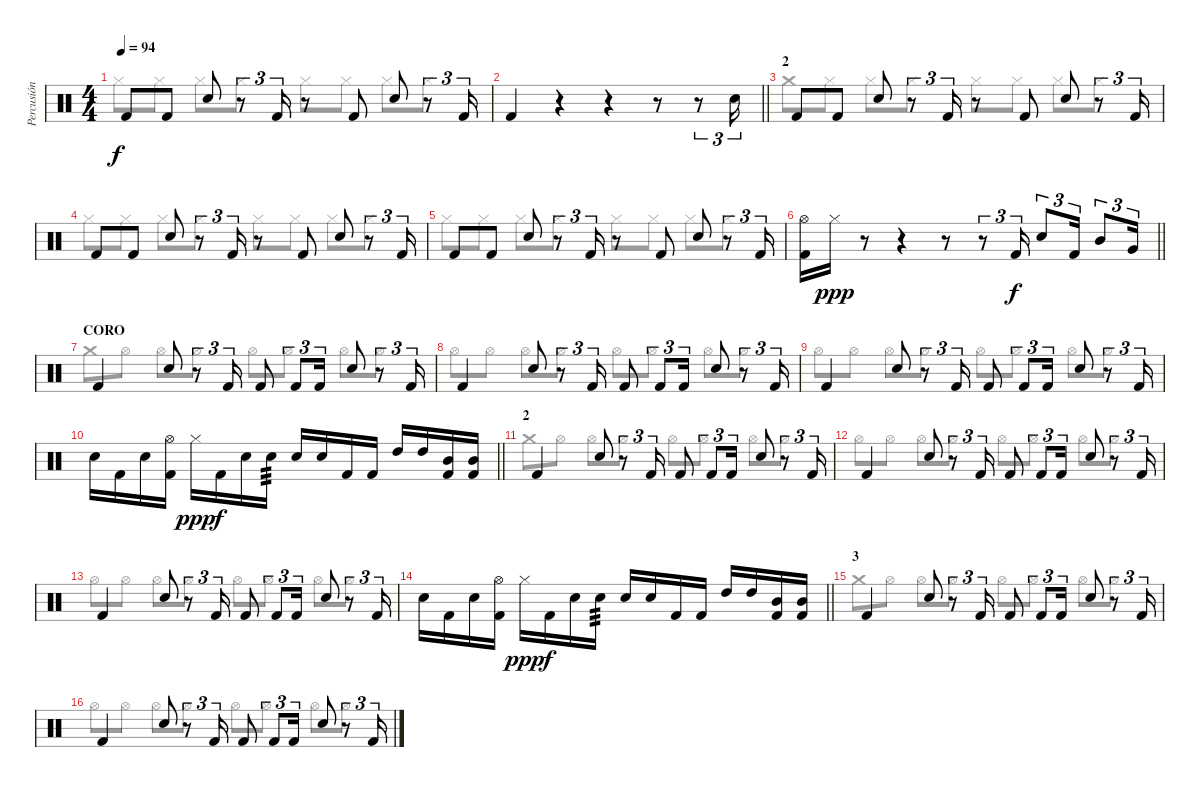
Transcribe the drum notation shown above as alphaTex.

\track ("Percusión" "Percusión") {instrument percussion}
\staff {score}
\articulation defaults
\voice
\ts (4 4)
\tempo 94
\clef neutral
\ks c "Kick (hit) 2".8{dy f} "Kick (hit) 2".8 "Electric Snare (hit)".8
r.8{tu (3 2)} "Kick (hit) 2".16{tu (3 2)} r.8 "Kick (hit) 2".8 "Electric Snare (hit)".8 r.8{tu (3 2)} "Kick (hit) 2".16{tu (3 2)} |
\barLineRight lightlight "Kick (hit) 2".4
r.4 r.4 r.8 r.8{tu (3 2)} "Electric Snare (hit)".16{tu (3 2)} |
\section ("" "2")
"Kick (hit) 2".8 "Kick (hit) 2".8 "Electric Snare (hit)".8 r.8{tu (3 2)} "Kick (hit) 2".16{tu (3 2)} r.8 "Kick (hit) 2".8 "Electric Snare (hit)".8 r.8{tu (3 2)} "Kick (hit) 2".16{tu (3 2)} |
"Kick (hit) 2".8 "Kick (hit) 2".8 "Electric Snare (hit)".8 r.8{tu (3 2)} "Kick (hit) 2".16{tu (3 2)} r.8 "Kick (hit) 2".8 "Electric Snare (hit)".8 r.8{tu (3 2)} "Kick (hit) 2".16{tu (3 2)} |
"Kick (hit) 2".8 "Kick (hit) 2".8 "Electric Snare (hit)".8 r.8{tu (3 2)} "Kick (hit) 2".16{tu (3 2)} r.8 "Kick (hit) 2".8 "Electric Snare (hit)".8 r.8{tu (3 2)} "Kick (hit) 2".16{tu (3 2)} |
\barLineRight lightlight
("Hi-Hat (open)" "Kick (hit) 2").16 "Hi-Hat (closed)".16{dy ppp} r.8 r.4 r.8 r.8{tu (3 2)} "Kick (hit) 2".16{tu (3 2) dy f} "Electric Snare (hit)".8{tu (3 2)} "Kick (hit) 2".16{tu (3 2)} "Mid Tom (hit)".8{tu (3 2)} "Very Low Tom (hit)".16{tu (3 2)} |
\section ("" "CORO")
"Kick (hit) 2".4 "Electric Snare (hit)".8 r.8{tu (3 2)} "Kick (hit) 2".16{tu (3 2)} "Kick (hit) 2".8 "Kick (hit) 2".8{tu (3 2)} "Kick (hit) 2".16{tu (3 2)} "Electric Snare (hit)".8 r.8{tu (3 2)} "Kick (hit) 2".16{tu (3 2)} |
"Kick (hit) 2".4 "Electric Snare (hit)".8 r.8{tu (3 2)} "Kick (hit) 2".16{tu (3 2)} "Kick (hit) 2".8 "Kick (hit) 2".8{tu (3 2)} "Kick (hit) 2".16{tu (3 2)} "Electric Snare (hit)".8 r.8{tu (3 2)} "Kick (hit) 2".16{tu (3 2)} |
"Kick (hit) 2".4 "Electric Snare (hit)".8 r.8{tu (3 2)} "Kick (hit) 2".16{tu (3 2)} "Kick (hit) 2".8 "Kick (hit) 2".8{tu (3 2)} "Kick (hit) 2".16{tu (3 2)} "Electric Snare (hit)".8 r.8{tu (3 2)} "Kick (hit) 2".16{tu (3 2)} |
\barLineRight lightlight "Electric Snare (hit)".16 "Kick (hit) 2".16 "Electric Snare (hit)".16
("Hi-Hat (open)" "Kick (hit) 2").16 "Hi-Hat (closed)".16{dy ppp} "Kick (hit) 2".16{dy f} "Electric Snare (hit)".16 "Electric Snare (hit)".16{tp 3} "Electric Snare (hit)".16 "Electric Snare (hit)".16 "Kick (hit) 2".16 "Kick (hit) 2".16 "High Tom (hit)".16 "High Tom (hit)".16 ("Mid Tom (hit)" "Kick (hit) 2").16 ("Mid Tom (hit)" "Kick (hit) 2").16 |
\section ("" "2")
"Kick (hit) 2".4 "Electric Snare (hit)".8 r.8{tu (3 2)} "Kick (hit) 2".16{tu (3 2)} "Kick (hit) 2".8 "Kick (hit) 2".8{tu (3 2)} "Kick (hit) 2".16{tu (3 2)} "Electric Snare (hit)".8 r.8{tu (3 2)} "Kick (hit) 2".16{tu (3 2)} |
"Kick (hit) 2".4 "Electric Snare (hit)".8 r.8{tu (3 2)} "Kick (hit) 2".16{tu (3 2)} "Kick (hit) 2".8 "Kick (hit) 2".8{tu (3 2)} "Kick (hit) 2".16{tu (3 2)} "Electric Snare (hit)".8 r.8{tu (3 2)} "Kick (hit) 2".16{tu (3 2)} |
"Kick (hit) 2".4 "Electric Snare (hit)".8 r.8{tu (3 2)} "Kick (hit) 2".16{tu (3 2)} "Kick (hit) 2".8 "Kick (hit) 2".8{tu (3 2)} "Kick (hit) 2".16{tu (3 2)} "Electric Snare (hit)".8 r.8{tu (3 2)} "Kick (hit) 2".16{tu (3 2)} |
\barLineRight lightlight "Electric Snare (hit)".16 "Kick (hit) 2".16 "Electric Snare (hit)".16
("Hi-Hat (open)" "Kick (hit) 2").16 "Hi-Hat (closed)".16{dy ppp} "Kick (hit) 2".16{dy f} "Electric Snare (hit)".16 "Electric Snare (hit)".16{tp 3} "Electric Snare (hit)".16 "Electric Snare (hit)".16 "Kick (hit) 2".16 "Kick (hit) 2".16 "High Tom (hit)".16 "High Tom (hit)".16 ("Mid Tom (hit)" "Kick (hit) 2").16 ("Mid Tom (hit)" "Kick (hit) 2").16 |
\section ("" "3")
"Kick (hit) 2".4 "Electric Snare (hit)".8 r.8{tu (3 2)} "Kick (hit) 2".16{tu (3 2)} "Kick (hit) 2".8 "Kick (hit) 2".8{tu (3 2)} "Kick (hit) 2".16{tu (3 2)} "Electric Snare (hit)".8 r.8{tu (3 2)} "Kick (hit) 2".16{tu (3 2)} |
"Kick (hit) 2".4 "Electric Snare (hit)".8 r.8{tu (3 2)} "Kick (hit) 2".16{tu (3 2)} "Kick (hit) 2".8 "Kick (hit) 2".8{tu (3 2)} "Kick (hit) 2".16{tu (3 2)} "Electric Snare (hit)".8 r.8{tu (3 2)} "Kick (hit) 2".16{tu (3 2)}
\voice
\clef neutral
\ottava regular
\simile none
\ks c "Hi-Hat (closed)".8{dy f} "Hi-Hat (closed)".8 "Hi-Hat (closed)".8 "Hi-Hat (closed)".8 "Hi-Hat (closed)".8 "Hi-Hat (closed)".8 "Hi-Hat (closed)".8 "Hi-Hat (closed)".8
|
\barLineRight lightlight
|
"Crash medium (hit)".8 "Hi-Hat (closed)".8 "Hi-Hat (closed)".8 "Hi-Hat (closed)".8 "Hi-Hat (closed)".8 "Hi-Hat (closed)".8 "Hi-Hat (closed)".8 "Hi-Hat (closed)".8 |
"Hi-Hat (closed)".8 "Hi-Hat (closed)".8 "Hi-Hat (closed)".8 "Hi-Hat (closed)".8 "Hi-Hat (closed)".8 "Hi-Hat (closed)".8 "Hi-Hat (closed)".8 "Hi-Hat (closed)".8 |
"Hi-Hat (closed)".8 "Hi-Hat (closed)".8 "Hi-Hat (closed)".8 "Hi-Hat (closed)".8 "Hi-Hat (closed)".8 "Hi-Hat (closed)".8 "Hi-Hat (closed)".8 "Hi-Hat (closed)".8 |
\barLineRight lightlight
|
"Crash medium (hit)".8 "Hi-Hat (open)".8 "Hi-Hat (open)".8 "Hi-Hat (open)".8 "Hi-Hat (open)".8 "Hi-Hat (open)".8 "Hi-Hat (open)".8 "Hi-Hat (open)".8 |
"Hi-Hat (open)".8 "Hi-Hat (open)".8 "Hi-Hat (open)".8 "Hi-Hat (open)".8 "Hi-Hat (open)".8 "Hi-Hat (open)".8 "Hi-Hat (open)".8 "Hi-Hat (open)".8 |
"Hi-Hat (open)".8 "Hi-Hat (open)".8 "Hi-Hat (open)".8 "Hi-Hat (open)".8 "Hi-Hat (open)".8 "Hi-Hat (open)".8 "Hi-Hat (open)".8 "Hi-Hat (open)".8 |
\barLineRight lightlight
|
"Crash medium (hit)".8 "Hi-Hat (open)".8 "Hi-Hat (open)".8 "Hi-Hat (open)".8 "Hi-Hat (open)".8 "Hi-Hat (open)".8 "Hi-Hat (open)".8 "Hi-Hat (open)".8 |
"Hi-Hat (open)".8 "Hi-Hat (open)".8 "Hi-Hat (open)".8 "Hi-Hat (open)".8 "Hi-Hat (open)".8 "Hi-Hat (open)".8 "Hi-Hat (open)".8 "Hi-Hat (open)".8 |
"Hi-Hat (open)".8 "Hi-Hat (open)".8 "Hi-Hat (open)".8 "Hi-Hat (open)".8 "Hi-Hat (open)".8 "Hi-Hat (open)".8 "Hi-Hat (open)".8 "Hi-Hat (open)".8 |
\barLineRight lightlight
|
"Crash medium (hit)".8 "Hi-Hat (open)".8 "Hi-Hat (open)".8 "Hi-Hat (open)".8 "Hi-Hat (open)".8 "Hi-Hat (open)".8 "Hi-Hat (open)".8 "Hi-Hat (open)".8 |
"Hi-Hat (open)".8 "Hi-Hat (open)".8 "Hi-Hat (open)".8 "Hi-Hat (open)".8 "Hi-Hat (open)".8 "Hi-Hat (open)".8 "Hi-Hat (open)".8 "Hi-Hat (open)".8
